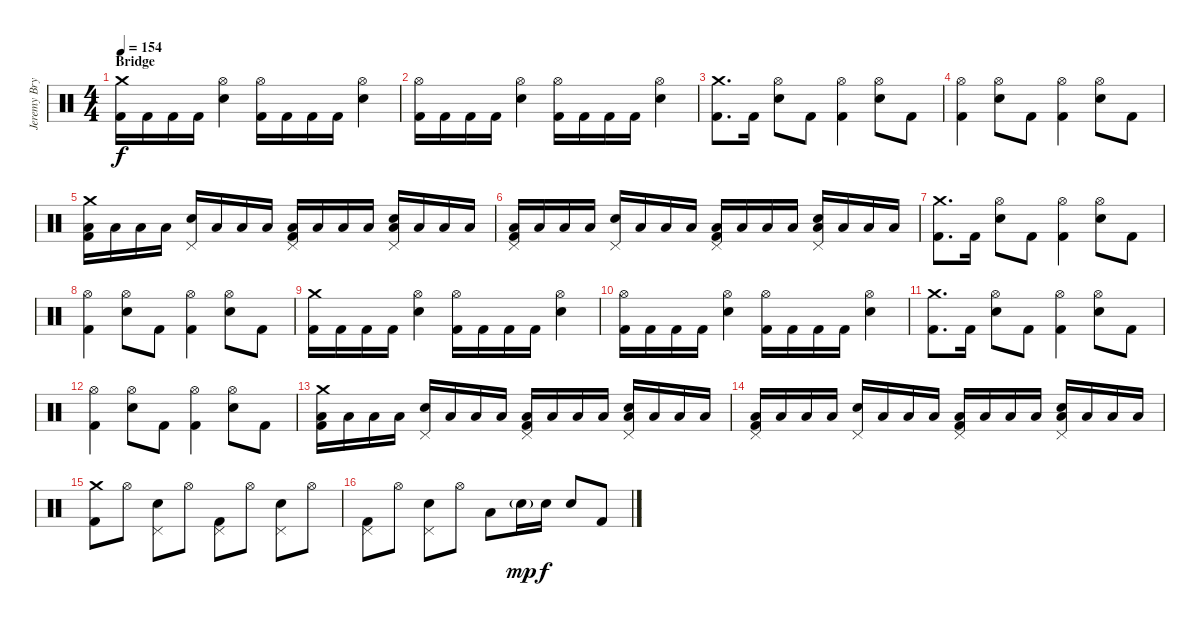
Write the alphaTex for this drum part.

\track ("Jeremy Bryan - Drums" "Jeremy Bry") {instrument percussion}
\staff {score}
\articulation defaults
\ts (4 4)
\section ("" "Bridge")
\tempo 154
\clef neutral
\ks c
("Crash medium (hit)" "Kick (hit) 2").16{dy f} "Kick (hit) 2".16 "Kick (hit) 2".16 "Kick (hit) 2".16 ("Hi-Hat (open)" "Electric Snare (hit)").4 ("Hi-Hat (open)" "Kick (hit) 2").16 "Kick (hit) 2".16 "Kick (hit) 2".16 "Kick (hit) 2".16 ("Hi-Hat (open)" "Electric Snare (hit)").4 |
("Hi-Hat (open)" "Kick (hit) 2").16 "Kick (hit) 2".16 "Kick (hit) 2".16 "Kick (hit) 2".16 ("Hi-Hat (open)" "Electric Snare (hit)").4 ("Hi-Hat (open)" "Kick (hit) 2").16 "Kick (hit) 2".16 "Kick (hit) 2".16 "Kick (hit) 2".16 ("Hi-Hat (open)" "Electric Snare (hit)").4 |
("Crash medium (hit)" "Kick (hit) 2").8{d} "Kick (hit) 2".16 ("Hi-Hat (open)" "Electric Snare (hit)").8 "Kick (hit) 2".8 ("Hi-Hat (open)" "Kick (hit) 2").4 ("Hi-Hat (open)" "Electric Snare (hit)").8 "Kick (hit) 2".8 |
("Hi-Hat (open)" "Kick (hit) 2").4 ("Hi-Hat (open)" "Electric Snare (hit)").8 "Kick (hit) 2".8 ("Hi-Hat (open)" "Kick (hit) 2").4 ("Hi-Hat (open)" "Electric Snare (hit)").8 "Kick (hit) 2".8 |
("Crash medium (hit)" "Low Floor Tom (hit)" "Kick (hit) 2").16 "Low Floor Tom (hit)".16 "Low Floor Tom (hit)".16 "Low Floor Tom (hit)".16 ("Pedal Hi-Hat (hit)" "Electric Snare (hit)").16 "Low Floor Tom (hit)".16 "Low Floor Tom (hit)".16 "Low Floor Tom (hit)".16 ("Pedal Hi-Hat (hit)" "Low Floor Tom (hit)" "Kick (hit) 2").16 "Low Floor Tom (hit)".16 "Low Floor Tom (hit)".16 "Low Floor Tom (hit)".16 ("Pedal Hi-Hat (hit)" "Low Floor Tom (hit)" "Electric Snare (hit)").16 "Low Floor Tom (hit)".16 "Low Floor Tom (hit)".16 "Low Floor Tom (hit)".16 |
("Pedal Hi-Hat (hit)" "Low Floor Tom (hit)" "Kick (hit) 2").16 "Low Floor Tom (hit)".16 "Low Floor Tom (hit)".16 "Low Floor Tom (hit)".16 ("Pedal Hi-Hat (hit)" "Electric Snare (hit)").16 "Low Floor Tom (hit)".16 "Low Floor Tom (hit)".16 "Low Floor Tom (hit)".16 ("Pedal Hi-Hat (hit)" "Low Floor Tom (hit)" "Kick (hit) 2").16 "Low Floor Tom (hit)".16 "Low Floor Tom (hit)".16 "Low Floor Tom (hit)".16 ("Pedal Hi-Hat (hit)" "Low Floor Tom (hit)" "Electric Snare (hit)").16 "Low Floor Tom (hit)".16 "Low Floor Tom (hit)".16 "Low Floor Tom (hit)".16 |
("Crash medium (hit)" "Kick (hit) 2").8{d} "Kick (hit) 2".16 ("Hi-Hat (open)" "Electric Snare (hit)").8 "Kick (hit) 2".8 ("Hi-Hat (open)" "Kick (hit) 2").4 ("Hi-Hat (open)" "Electric Snare (hit)").8 "Kick (hit) 2".8 |
("Hi-Hat (open)" "Kick (hit) 2").4 ("Hi-Hat (open)" "Electric Snare (hit)").8 "Kick (hit) 2".8 ("Hi-Hat (open)" "Kick (hit) 2").4 ("Hi-Hat (open)" "Electric Snare (hit)").8 "Kick (hit) 2".8 |
("Crash medium (hit)" "Kick (hit) 2").16 "Kick (hit) 2".16 "Kick (hit) 2".16 "Kick (hit) 2".16 ("Hi-Hat (open)" "Electric Snare (hit)").4 ("Hi-Hat (open)" "Kick (hit) 2").16 "Kick (hit) 2".16 "Kick (hit) 2".16 "Kick (hit) 2".16 ("Hi-Hat (open)" "Electric Snare (hit)").4 |
("Hi-Hat (open)" "Kick (hit) 2").16 "Kick (hit) 2".16 "Kick (hit) 2".16 "Kick (hit) 2".16 ("Hi-Hat (open)" "Electric Snare (hit)").4 ("Hi-Hat (open)" "Kick (hit) 2").16 "Kick (hit) 2".16 "Kick (hit) 2".16 "Kick (hit) 2".16 ("Hi-Hat (open)" "Electric Snare (hit)").4 |
("Crash medium (hit)" "Kick (hit) 2").8{d} "Kick (hit) 2".16 ("Hi-Hat (open)" "Electric Snare (hit)").8 "Kick (hit) 2".8 ("Hi-Hat (open)" "Kick (hit) 2").4 ("Hi-Hat (open)" "Electric Snare (hit)").8 "Kick (hit) 2".8 |
("Hi-Hat (open)" "Kick (hit) 2").4 ("Hi-Hat (open)" "Electric Snare (hit)").8 "Kick (hit) 2".8 ("Hi-Hat (open)" "Kick (hit) 2").4 ("Hi-Hat (open)" "Electric Snare (hit)").8 "Kick (hit) 2".8 |
("Crash medium (hit)" "Low Floor Tom (hit)" "Kick (hit) 2").16 "Low Floor Tom (hit)".16 "Low Floor Tom (hit)".16 "Low Floor Tom (hit)".16 ("Pedal Hi-Hat (hit)" "Electric Snare (hit)").16 "Low Floor Tom (hit)".16 "Low Floor Tom (hit)".16 "Low Floor Tom (hit)".16 ("Pedal Hi-Hat (hit)" "Low Floor Tom (hit)" "Kick (hit) 2").16 "Low Floor Tom (hit)".16 "Low Floor Tom (hit)".16 "Low Floor Tom (hit)".16 ("Pedal Hi-Hat (hit)" "Low Floor Tom (hit)" "Electric Snare (hit)").16 "Low Floor Tom (hit)".16 "Low Floor Tom (hit)".16 "Low Floor Tom (hit)".16 |
("Pedal Hi-Hat (hit)" "Low Floor Tom (hit)" "Kick (hit) 2").16 "Low Floor Tom (hit)".16 "Low Floor Tom (hit)".16 "Low Floor Tom (hit)".16 ("Pedal Hi-Hat (hit)" "Electric Snare (hit)").16 "Low Floor Tom (hit)".16 "Low Floor Tom (hit)".16 "Low Floor Tom (hit)".16 ("Pedal Hi-Hat (hit)" "Low Floor Tom (hit)" "Kick (hit) 2").16 "Low Floor Tom (hit)".16 "Low Floor Tom (hit)".16 "Low Floor Tom (hit)".16 ("Pedal Hi-Hat (hit)" "Low Floor Tom (hit)" "Electric Snare (hit)").16 "Low Floor Tom (hit)".16 "Low Floor Tom (hit)".16 "Low Floor Tom (hit)".16 |
("Crash medium (hit)" "Kick (hit) 2").8 "Hi-Hat (open)".8 ("Pedal Hi-Hat (hit)" "Electric Snare (hit)").8 "Hi-Hat (open)".8 ("Pedal Hi-Hat (hit)" "Kick (hit) 2").8 "Hi-Hat (open)".8 ("Pedal Hi-Hat (hit)" "Electric Snare (hit)").8 "Hi-Hat (open)".8 |
("Pedal Hi-Hat (hit)" "Kick (hit) 2").8 "Hi-Hat (open)".8 ("Pedal Hi-Hat (hit)" "Electric Snare (hit)").8 "Hi-Hat (open)".8 "Low Tom (hit)".8 "Electric Snare (hit)"{g}.16{dy mp} "Electric Snare (hit)".16{dy f} "Electric Snare (hit)".8 "Kick (hit) 2".8
